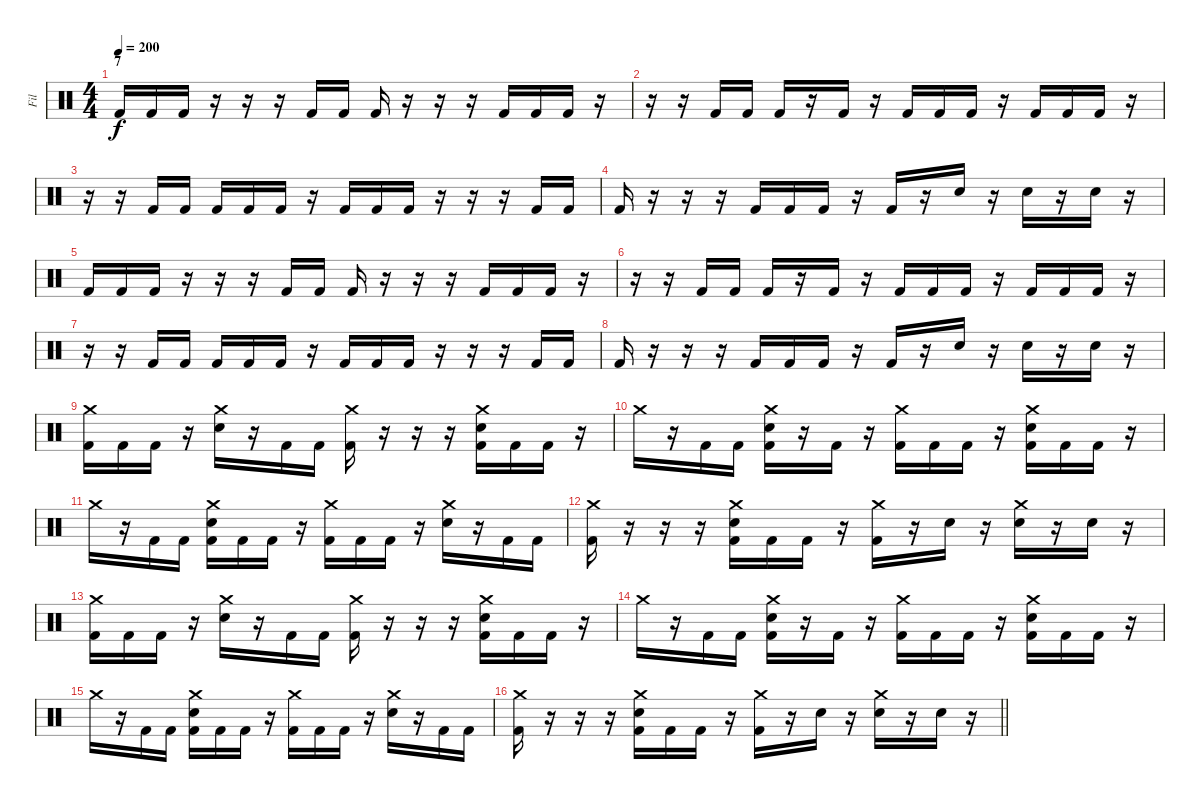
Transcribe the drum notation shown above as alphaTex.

\track ("Fil" "Fil") {instrument percussion}
\staff {score}
\articulation defaults
\ts (4 4)
\section ("" "7")
\tempo 200
\clef neutral
\ks c "Kick (hit) 2".16{dy f} "Kick (hit) 2".16 "Kick (hit) 2".16
r.16 r.16 r.16 "Kick (hit) 2".16 "Kick (hit) 2".16 "Kick (hit) 2".16 r.16 r.16 r.16 "Kick (hit) 2".16 "Kick (hit) 2".16 "Kick (hit) 2".16 r.16 |
r.16 r.16 "Kick (hit) 2".16 "Kick (hit) 2".16 "Kick (hit) 2".16 r.16 "Kick (hit) 2".16 r.16 "Kick (hit) 2".16 "Kick (hit) 2".16 "Kick (hit) 2".16 r.16 "Kick (hit) 2".16 "Kick (hit) 2".16 "Kick (hit) 2".16 r.16 |
r.16 r.16 "Kick (hit) 2".16 "Kick (hit) 2".16 "Kick (hit) 2".16 "Kick (hit) 2".16 "Kick (hit) 2".16 r.16 "Kick (hit) 2".16 "Kick (hit) 2".16 "Kick (hit) 2".16 r.16 r.16 r.16 "Kick (hit) 2".16 "Kick (hit) 2".16 |
"Kick (hit) 2".16 r.16 r.16 r.16 "Kick (hit) 2".16 "Kick (hit) 2".16 "Kick (hit) 2".16 r.16 "Kick (hit) 2".16 r.16 "Electric Snare (hit)".16 r.16 "Electric Snare (hit)".16 r.16 "Electric Snare (hit)".16 r.16 |
"Kick (hit) 2".16 "Kick (hit) 2".16 "Kick (hit) 2".16 r.16 r.16 r.16 "Kick (hit) 2".16 "Kick (hit) 2".16 "Kick (hit) 2".16 r.16 r.16 r.16 "Kick (hit) 2".16 "Kick (hit) 2".16 "Kick (hit) 2".16 r.16 |
r.16 r.16 "Kick (hit) 2".16 "Kick (hit) 2".16 "Kick (hit) 2".16 r.16 "Kick (hit) 2".16 r.16 "Kick (hit) 2".16 "Kick (hit) 2".16 "Kick (hit) 2".16 r.16 "Kick (hit) 2".16 "Kick (hit) 2".16 "Kick (hit) 2".16 r.16 |
r.16 r.16 "Kick (hit) 2".16 "Kick (hit) 2".16 "Kick (hit) 2".16 "Kick (hit) 2".16 "Kick (hit) 2".16 r.16 "Kick (hit) 2".16 "Kick (hit) 2".16 "Kick (hit) 2".16 r.16 r.16 r.16 "Kick (hit) 2".16 "Kick (hit) 2".16 |
"Kick (hit) 2".16 r.16 r.16 r.16 "Kick (hit) 2".16 "Kick (hit) 2".16 "Kick (hit) 2".16 r.16 "Kick (hit) 2".16 r.16 "Electric Snare (hit)".16 r.16 "Electric Snare (hit)".16 r.16 "Electric Snare (hit)".16 r.16 |
("Crash medium (hit)" "Kick (hit) 2").16 "Kick (hit) 2".16 "Kick (hit) 2".16 r.16 ("Crash medium (hit)" "Electric Snare (hit)").16 r.16 "Kick (hit) 2".16 "Kick (hit) 2".16 ("Crash medium (hit)" "Kick (hit) 2").16 r.16 r.16 r.16 ("Crash medium (hit)" "Electric Snare (hit)" "Kick (hit) 2").16 "Kick (hit) 2".16 "Kick (hit) 2".16 r.16 |
"Crash medium (hit)".16 r.16 "Kick (hit) 2".16 "Kick (hit) 2".16 ("Crash medium (hit)" "Electric Snare (hit)" "Kick (hit) 2").16 r.16 "Kick (hit) 2".16 r.16 ("Crash medium (hit)" "Kick (hit) 2").16 "Kick (hit) 2".16 "Kick (hit) 2".16 r.16 ("Crash medium (hit)" "Electric Snare (hit)" "Kick (hit) 2").16 "Kick (hit) 2".16 "Kick (hit) 2".16 r.16 |
"Crash medium (hit)".16 r.16 "Kick (hit) 2".16 "Kick (hit) 2".16 ("Crash medium (hit)" "Electric Snare (hit)" "Kick (hit) 2").16 "Kick (hit) 2".16 "Kick (hit) 2".16 r.16 ("Crash medium (hit)" "Kick (hit) 2").16 "Kick (hit) 2".16 "Kick (hit) 2".16 r.16 ("Crash medium (hit)" "Electric Snare (hit)").16 r.16 "Kick (hit) 2".16 "Kick (hit) 2".16 |
("Crash medium (hit)" "Kick (hit) 2").16 r.16 r.16 r.16 ("Crash medium (hit)" "Electric Snare (hit)" "Kick (hit) 2").16 "Kick (hit) 2".16 "Kick (hit) 2".16 r.16 ("Crash medium (hit)" "Kick (hit) 2").16 r.16 "Electric Snare (hit)".16 r.16 ("Crash medium (hit)" "Electric Snare (hit)").16 r.16 "Electric Snare (hit)".16 r.16 |
("Crash medium (hit)" "Kick (hit) 2").16 "Kick (hit) 2".16 "Kick (hit) 2".16 r.16 ("Crash medium (hit)" "Electric Snare (hit)").16 r.16 "Kick (hit) 2".16 "Kick (hit) 2".16 ("Crash medium (hit)" "Kick (hit) 2").16 r.16 r.16 r.16 ("Crash medium (hit)" "Electric Snare (hit)" "Kick (hit) 2").16 "Kick (hit) 2".16 "Kick (hit) 2".16 r.16 |
"Crash medium (hit)".16 r.16 "Kick (hit) 2".16 "Kick (hit) 2".16 ("Crash medium (hit)" "Electric Snare (hit)" "Kick (hit) 2").16 r.16 "Kick (hit) 2".16 r.16 ("Crash medium (hit)" "Kick (hit) 2").16 "Kick (hit) 2".16 "Kick (hit) 2".16 r.16 ("Crash medium (hit)" "Electric Snare (hit)" "Kick (hit) 2").16 "Kick (hit) 2".16 "Kick (hit) 2".16 r.16 |
"Crash medium (hit)".16 r.16 "Kick (hit) 2".16 "Kick (hit) 2".16 ("Crash medium (hit)" "Electric Snare (hit)" "Kick (hit) 2").16 "Kick (hit) 2".16 "Kick (hit) 2".16 r.16 ("Crash medium (hit)" "Kick (hit) 2").16 "Kick (hit) 2".16 "Kick (hit) 2".16 r.16 ("Crash medium (hit)" "Electric Snare (hit)").16 r.16 "Kick (hit) 2".16 "Kick (hit) 2".16 |
\barLineRight lightlight
("Crash medium (hit)" "Kick (hit) 2").16 r.16 r.16 r.16 ("Crash medium (hit)" "Electric Snare (hit)" "Kick (hit) 2").16 "Kick (hit) 2".16 "Kick (hit) 2".16 r.16 ("Crash medium (hit)" "Kick (hit) 2").16 r.16 "Electric Snare (hit)".16 r.16 ("Crash medium (hit)" "Electric Snare (hit)").16 r.16 "Electric Snare (hit)".16 r.16
